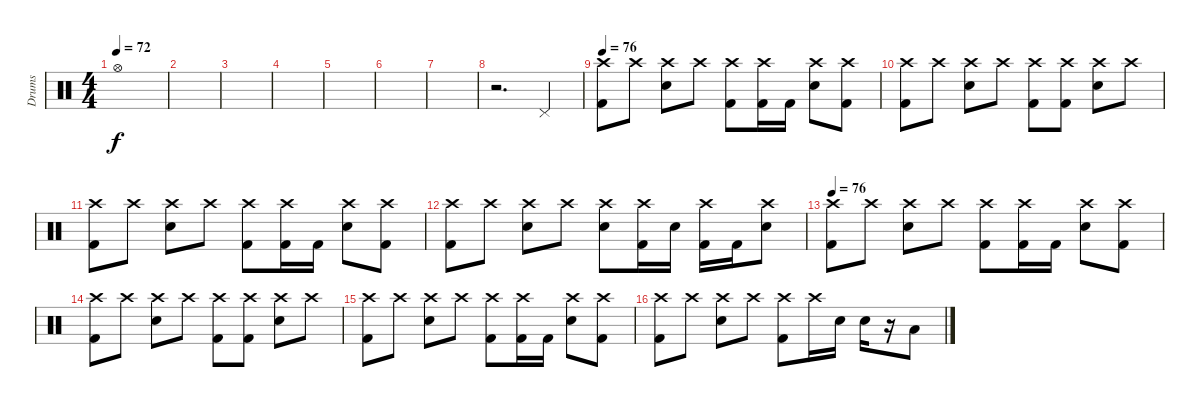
\track ("Drums" "Drums") {instrument percussion}
\staff {score}
\articulation defaults
\ts (4 4)
\tempo 72
\clef neutral
\ks c "Hi-Hat (open)".1{dy f}
|
|
|
|
|
|
|
r.2{d} "Pedal Hi-Hat (hit)".4 |
\tempo 76
("Crash high (hit)" "Kick (hit) 2").8 "Crash high (hit)".8 ("Crash high (hit)" "Electric Snare (hit)").8 "Crash high (hit)".8 ("Crash high (hit)" "Kick (hit) 2").8 ("Crash high (hit)" "Kick (hit) 2").16 "Kick (hit) 2".16 ("Crash high (hit)" "Electric Snare (hit)").8 ("Crash high (hit)" "Kick (hit) 2").8 |
("Crash high (hit)" "Kick (hit) 2").8 "Crash high (hit)".8 ("Crash high (hit)" "Electric Snare (hit)").8 "Crash high (hit)".8 ("Crash high (hit)" "Kick (hit) 2").8 ("Crash high (hit)" "Kick (hit) 2").8 ("Crash high (hit)" "Electric Snare (hit)").8 "Crash high (hit)".8 |
("Crash high (hit)" "Kick (hit) 2").8 "Crash high (hit)".8 ("Crash high (hit)" "Electric Snare (hit)").8 "Crash high (hit)".8 ("Crash high (hit)" "Kick (hit) 2").8 ("Crash high (hit)" "Kick (hit) 2").16 "Kick (hit) 2".16 ("Crash high (hit)" "Electric Snare (hit)").8 ("Crash high (hit)" "Kick (hit) 2").8 |
("Crash high (hit)" "Kick (hit) 2").8 "Crash high (hit)".8 ("Crash high (hit)" "Electric Snare (hit)").8 "Crash high (hit)".8 ("Crash high (hit)" "Electric Snare (hit)").8 ("Crash high (hit)" "Kick (hit) 2").16 "Electric Snare (hit)".16 ("Crash high (hit)" "Kick (hit) 2").16 "Kick (hit) 2".16 ("Crash high (hit)" "Electric Snare (hit)").8 |
\tempo 76
("Crash high (hit)" "Kick (hit) 2").8 "Crash high (hit)".8 ("Crash high (hit)" "Electric Snare (hit)").8 "Crash high (hit)".8 ("Crash high (hit)" "Kick (hit) 2").8 ("Crash high (hit)" "Kick (hit) 2").16 "Kick (hit) 2".16 ("Crash high (hit)" "Electric Snare (hit)").8 ("Crash high (hit)" "Kick (hit) 2").8 |
("Crash high (hit)" "Kick (hit) 2").8 "Crash high (hit)".8 ("Crash high (hit)" "Electric Snare (hit)").8 "Crash high (hit)".8 ("Crash high (hit)" "Kick (hit) 2").8 ("Crash high (hit)" "Kick (hit) 2").8 ("Crash high (hit)" "Electric Snare (hit)").8 "Crash high (hit)".8 |
("Crash high (hit)" "Kick (hit) 2").8 "Crash high (hit)".8 ("Crash high (hit)" "Electric Snare (hit)").8 "Crash high (hit)".8 ("Crash high (hit)" "Kick (hit) 2").8 ("Crash high (hit)" "Kick (hit) 2").16 "Kick (hit) 2".16 ("Crash high (hit)" "Electric Snare (hit)").8 ("Crash high (hit)" "Kick (hit) 2").8 |
("Crash high (hit)" "Kick (hit) 2").8 "Crash high (hit)".8 ("Crash high (hit)" "Electric Snare (hit)").8 "Crash high (hit)".8 ("Crash high (hit)" "Kick (hit) 2").8 "Crash high (hit)".16 "Electric Snare (hit)".16 "Electric Snare (hit)".16 r.16 "Low Tom (hit)".8
